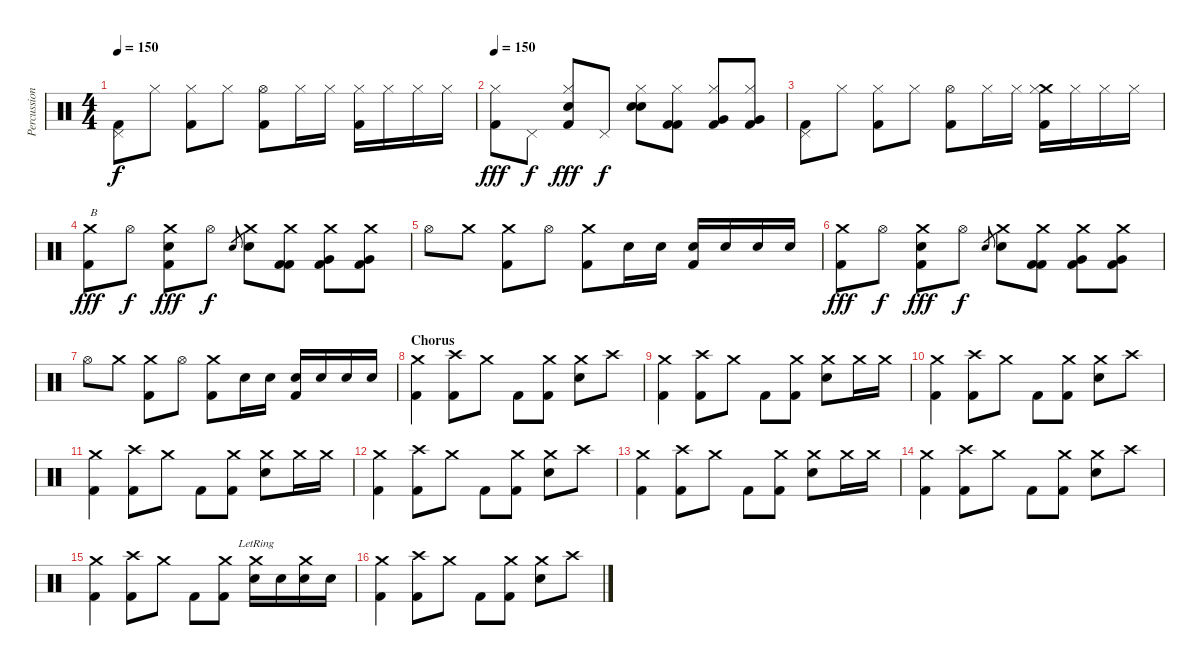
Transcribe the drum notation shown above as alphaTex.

\track ("Percussion" "Percussion") {instrument percussion}
\staff {score}
\articulation defaults
\ts (4 4)
\tempo 150
\clef neutral
\ks c
("Pedal Hi-Hat (hit)" "Kick (hit) 2").8{dy f} "Hi-Hat (closed)".8 ("Hi-Hat (closed)" "Kick (hit) 2").8 "Hi-Hat (closed)".8 ("Hi-Hat (open)" "Kick (hit) 2").8 "Hi-Hat (closed)".16 "Hi-Hat (closed)".16 ("Hi-Hat (closed)" "Kick (hit) 2").16 "Hi-Hat (closed)".16 "Hi-Hat (closed)".16 "Hi-Hat (closed)".16 |
\tempo 150
("Hi-Hat (closed)" "Kick (hit) 2").8{dy fff} "Pedal Hi-Hat (hit)".8{dy f} ("Hi-Hat (closed)" "Electric Snare (hit)" "Kick (hit) 2").8{dy fff} "Pedal Hi-Hat (hit)".8{dy f} ("Hi-Hat (closed)" "Electric Snare (hit)" "Electric Snare (hit)").8{bd 240} ("Hi-Hat (closed)" "Kick (hit) 2" "Kick (hit) 2").8 ("Hi-Hat (closed)" "Very Low Tom (hit)" "Kick (hit) 2").8 ("Hi-Hat (closed)" "Very Low Tom (hit)" "Kick (hit) 2").8 |
("Pedal Hi-Hat (hit)" "Kick (hit) 2").8 "Hi-Hat (closed)".8 ("Hi-Hat (closed)" "Kick (hit) 2").8 "Hi-Hat (closed)".8 ("Hi-Hat (open)" "Kick (hit) 2").8 "Hi-Hat (closed)".16 "Hi-Hat (closed)".16 ("Crash medium (hit)" "Hi-Hat (closed)" "Kick (hit) 2").16 "Hi-Hat (closed)".16 "Hi-Hat (closed)".16 "Hi-Hat (closed)".16 |
("Crash medium (hit)" "Kick (hit) 2").8{txt "B" dy fff} "Hi-Hat (open)".8{dy f} ("Crash medium (hit)" "Electric Snare (hit)" "Kick (hit) 2").8{dy fff} "Hi-Hat (open)".8{dy f} "Snare (hit) 2".8{gr} ("Crash medium (hit)" "Snare (hit) 2").8 ("Crash medium (hit)" "Kick (hit) 2" "Kick (hit) 2").8 ("Crash medium (hit)" "Very Low Tom (hit)" "Kick (hit) 2").8 ("Crash medium (hit)" "Very Low Tom (hit)" "Kick (hit) 2").8 |
"Hi-Hat (open)".8 "Crash medium (hit)".8 ("Crash medium (hit)" "Kick (hit) 2").8 "Hi-Hat (open)".8 ("Crash medium (hit)" "Kick (hit) 2").8 "Snare (hit) 2".16 "Snare (hit) 2".16 ("Snare (hit) 2" "Kick (hit) 2").16 "Snare (hit) 2".16 "Snare (hit) 2".16 "Snare (hit) 2".16 |
("Crash medium (hit)" "Kick (hit) 2").8{dy fff} "Hi-Hat (open)".8{dy f} ("Crash medium (hit)" "Electric Snare (hit)" "Kick (hit) 2").8{dy fff} "Hi-Hat (open)".8{dy f} "Snare (hit) 2".8{gr} ("Crash medium (hit)" "Snare (hit) 2").8 ("Crash medium (hit)" "Kick (hit) 2" "Kick (hit) 2").8 ("Crash medium (hit)" "Very Low Tom (hit)" "Kick (hit) 2").8 ("Crash medium (hit)" "Very Low Tom (hit)" "Kick (hit) 2").8 |
"Hi-Hat (open)".8 "Crash medium (hit)".8 ("Crash medium (hit)" "Kick (hit) 2").8 "Hi-Hat (open)".8 ("Crash medium (hit)" "Kick (hit) 2").8 "Snare (hit) 2".16 "Snare (hit) 2".16 ("Snare (hit) 2" "Kick (hit) 2").16 "Snare (hit) 2".16 "Snare (hit) 2".16 "Snare (hit) 2".16 |
\section ("" "Chorus")
("Crash medium (hit)" "Kick (hit) 2").4 ("Crash high (hit)" "Kick (hit) 2").8 "Crash medium (hit)".8 "Kick (hit) 2".8 ("Crash medium (hit)" "Kick (hit) 2").8 ("Crash medium (hit)" "Snare (hit) 2").8 "Crash high (hit)".8 |
("Crash medium (hit)" "Kick (hit) 2").4 ("Crash high (hit)" "Kick (hit) 2").8 "Crash medium (hit)".8 "Kick (hit) 2".8 ("Crash medium (hit)" "Kick (hit) 2").8 ("Crash medium (hit)" "Snare (hit) 2").8 "Crash medium (hit)".16 "Crash medium (hit)".16 |
("Crash medium (hit)" "Kick (hit) 2").4 ("Crash high (hit)" "Kick (hit) 2").8 "Crash medium (hit)".8 "Kick (hit) 2".8 ("Crash medium (hit)" "Kick (hit) 2").8 ("Crash medium (hit)" "Snare (hit) 2").8 "Crash high (hit)".8 |
("Crash medium (hit)" "Kick (hit) 2").4 ("Crash high (hit)" "Kick (hit) 2").8 "Crash medium (hit)".8 "Kick (hit) 2".8 ("Crash medium (hit)" "Kick (hit) 2").8 ("Crash medium (hit)" "Snare (hit) 2").8 "Crash medium (hit)".16 "Crash medium (hit)".16 |
("Crash medium (hit)" "Kick (hit) 2").4 ("Crash high (hit)" "Kick (hit) 2").8 "Crash medium (hit)".8 "Kick (hit) 2".8 ("Crash medium (hit)" "Kick (hit) 2").8 ("Crash medium (hit)" "Snare (hit) 2").8 "Crash high (hit)".8 |
("Crash medium (hit)" "Kick (hit) 2").4 ("Crash high (hit)" "Kick (hit) 2").8 "Crash medium (hit)".8 "Kick (hit) 2".8 ("Crash medium (hit)" "Kick (hit) 2").8 ("Crash medium (hit)" "Snare (hit) 2").8 "Crash medium (hit)".16 "Crash medium (hit)".16 |
("Crash medium (hit)" "Kick (hit) 2").4 ("Crash high (hit)" "Kick (hit) 2").8 "Crash medium (hit)".8 "Kick (hit) 2".8 ("Crash medium (hit)" "Kick (hit) 2").8 ("Crash medium (hit)" "Snare (hit) 2").8 "Crash high (hit)".8 |
("Crash medium (hit)" "Kick (hit) 2").4 ("Crash high (hit)" "Kick (hit) 2").8 "Crash medium (hit)".8 "Kick (hit) 2".8 ("Crash medium (hit)" "Kick (hit) 2").8 ("Crash medium (hit)"{lr} "Electric Snare (hit)").16 "Electric Snare (hit)".16 ("Crash medium (hit)" "Electric Snare (hit)").16 "Electric Snare (hit)".16 |
("Crash medium (hit)" "Kick (hit) 2").4 ("Crash high (hit)" "Kick (hit) 2").8 "Crash medium (hit)".8 "Kick (hit) 2".8 ("Crash medium (hit)" "Kick (hit) 2").8 ("Crash medium (hit)" "Snare (hit) 2").8 "Crash high (hit)".8
